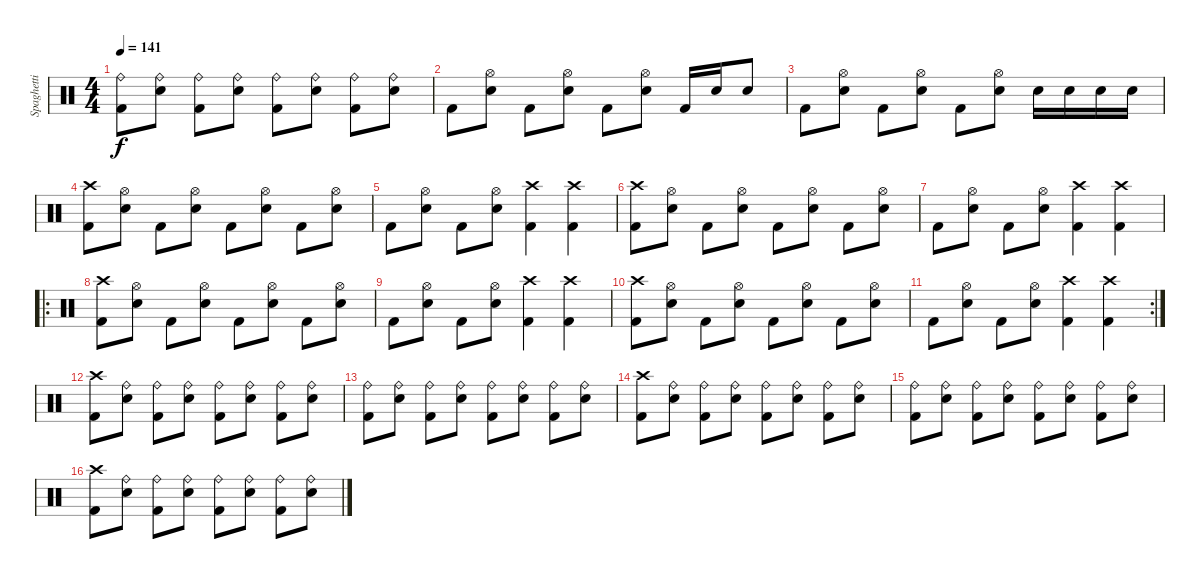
\track ("Spaghetti" "Spaghetti") {instrument percussion}
\staff {score}
\articulation defaults
\ts (4 4)
\tempo 141
\clef neutral
\ks c
("Ride (bell)" "Kick (hit) 2").8{dy f} ("Ride (bell)" "Snare (hit) 2").8 ("Ride (bell)" "Kick (hit) 2").8 ("Ride (bell)" "Snare (hit) 2").8 ("Ride (bell)" "Kick (hit) 2").8 ("Ride (bell)" "Snare (hit) 2").8 ("Ride (bell)" "Kick (hit) 2").8 ("Ride (bell)" "Snare (hit) 2").8 |
"Kick (hit) 2".8 ("Hi-Hat (open)" "Snare (hit) 2").8 "Kick (hit) 2".8 ("Hi-Hat (open)" "Snare (hit) 2").8 "Kick (hit) 2".8 ("Hi-Hat (open)" "Snare (hit) 2").8 "Kick (hit) 2".16 "Snare (hit) 2".16 "Snare (hit) 2".8 |
"Kick (hit) 2".8 ("Hi-Hat (open)" "Snare (hit) 2").8 "Kick (hit) 2".8 ("Hi-Hat (open)" "Snare (hit) 2").8 "Kick (hit) 2".8 ("Hi-Hat (open)" "Snare (hit) 2").8 "Snare (hit) 2".16 "Snare (hit) 2".16 "Snare (hit) 2".16 "Snare (hit) 2".16 |
("Crash high (hit)" "Kick (hit) 2").8 ("Hi-Hat (open)" "Snare (hit) 2").8 "Kick (hit) 2".8 ("Hi-Hat (open)" "Snare (hit) 2").8 "Kick (hit) 2".8 ("Hi-Hat (open)" "Snare (hit) 2").8 "Kick (hit) 2".8 ("Hi-Hat (open)" "Snare (hit) 2").8 |
"Kick (hit) 2".8 ("Hi-Hat (open)" "Snare (hit) 2").8 "Kick (hit) 2".8 ("Hi-Hat (open)" "Snare (hit) 2").8 ("Crash high (hit)" "Kick (hit) 2").4 ("Crash high (hit)" "Kick (hit) 2").4 |
("Crash high (hit)" "Kick (hit) 2").8 ("Hi-Hat (open)" "Snare (hit) 2").8 "Kick (hit) 2".8 ("Hi-Hat (open)" "Snare (hit) 2").8 "Kick (hit) 2".8 ("Hi-Hat (open)" "Snare (hit) 2").8 "Kick (hit) 2".8 ("Hi-Hat (open)" "Snare (hit) 2").8 |
"Kick (hit) 2".8 ("Hi-Hat (open)" "Snare (hit) 2").8 "Kick (hit) 2".8 ("Hi-Hat (open)" "Snare (hit) 2").8 ("Crash high (hit)" "Kick (hit) 2").4 ("Crash high (hit)" "Kick (hit) 2").4 |
\ro
("Crash high (hit)" "Kick (hit) 2").8 ("Hi-Hat (open)" "Snare (hit) 2").8 "Kick (hit) 2".8 ("Hi-Hat (open)" "Snare (hit) 2").8 "Kick (hit) 2".8 ("Hi-Hat (open)" "Snare (hit) 2").8 "Kick (hit) 2".8 ("Hi-Hat (open)" "Snare (hit) 2").8 |
"Kick (hit) 2".8 ("Hi-Hat (open)" "Snare (hit) 2").8 "Kick (hit) 2".8 ("Hi-Hat (open)" "Snare (hit) 2").8 ("Crash high (hit)" "Kick (hit) 2").4 ("Crash high (hit)" "Kick (hit) 2").4 |
("Crash high (hit)" "Kick (hit) 2").8 ("Hi-Hat (open)" "Snare (hit) 2").8 "Kick (hit) 2".8 ("Hi-Hat (open)" "Snare (hit) 2").8 "Kick (hit) 2".8 ("Hi-Hat (open)" "Snare (hit) 2").8 "Kick (hit) 2".8 ("Hi-Hat (open)" "Snare (hit) 2").8 |
\rc 2 "Kick (hit) 2".8
("Hi-Hat (open)" "Snare (hit) 2").8 "Kick (hit) 2".8 ("Hi-Hat (open)" "Snare (hit) 2").8 ("Crash high (hit)" "Kick (hit) 2").4 ("Crash high (hit)" "Kick (hit) 2").4 |
("Crash high (hit)" "Kick (hit) 2").8 ("Ride (bell)" "Snare (hit) 2").8 ("Ride (bell)" "Kick (hit) 2").8 ("Ride (bell)" "Snare (hit) 2").8 ("Ride (bell)" "Kick (hit) 2").8 ("Ride (bell)" "Snare (hit) 2").8 ("Ride (bell)" "Kick (hit) 2").8 ("Ride (bell)" "Snare (hit) 2").8 |
("Ride (bell)" "Kick (hit) 2").8 ("Ride (bell)" "Snare (hit) 2").8 ("Ride (bell)" "Kick (hit) 2").8 ("Ride (bell)" "Snare (hit) 2").8 ("Ride (bell)" "Kick (hit) 2").8 ("Ride (bell)" "Snare (hit) 2").8 ("Ride (bell)" "Kick (hit) 2").8 ("Ride (bell)" "Snare (hit) 2").8 |
("Crash high (hit)" "Kick (hit) 2").8 ("Ride (bell)" "Snare (hit) 2").8 ("Ride (bell)" "Kick (hit) 2").8 ("Ride (bell)" "Snare (hit) 2").8 ("Ride (bell)" "Kick (hit) 2").8 ("Ride (bell)" "Snare (hit) 2").8 ("Ride (bell)" "Kick (hit) 2").8 ("Ride (bell)" "Snare (hit) 2").8 |
("Ride (bell)" "Kick (hit) 2").8 ("Ride (bell)" "Snare (hit) 2").8 ("Ride (bell)" "Kick (hit) 2").8 ("Ride (bell)" "Snare (hit) 2").8 ("Ride (bell)" "Kick (hit) 2").8 ("Ride (bell)" "Snare (hit) 2").8 ("Ride (bell)" "Kick (hit) 2").8 ("Ride (bell)" "Snare (hit) 2").8 |
("Crash high (hit)" "Kick (hit) 2").8 ("Ride (bell)" "Snare (hit) 2").8 ("Ride (bell)" "Kick (hit) 2").8 ("Ride (bell)" "Snare (hit) 2").8 ("Ride (bell)" "Kick (hit) 2").8 ("Ride (bell)" "Snare (hit) 2").8 ("Ride (bell)" "Kick (hit) 2").8 ("Ride (bell)" "Snare (hit) 2").8
